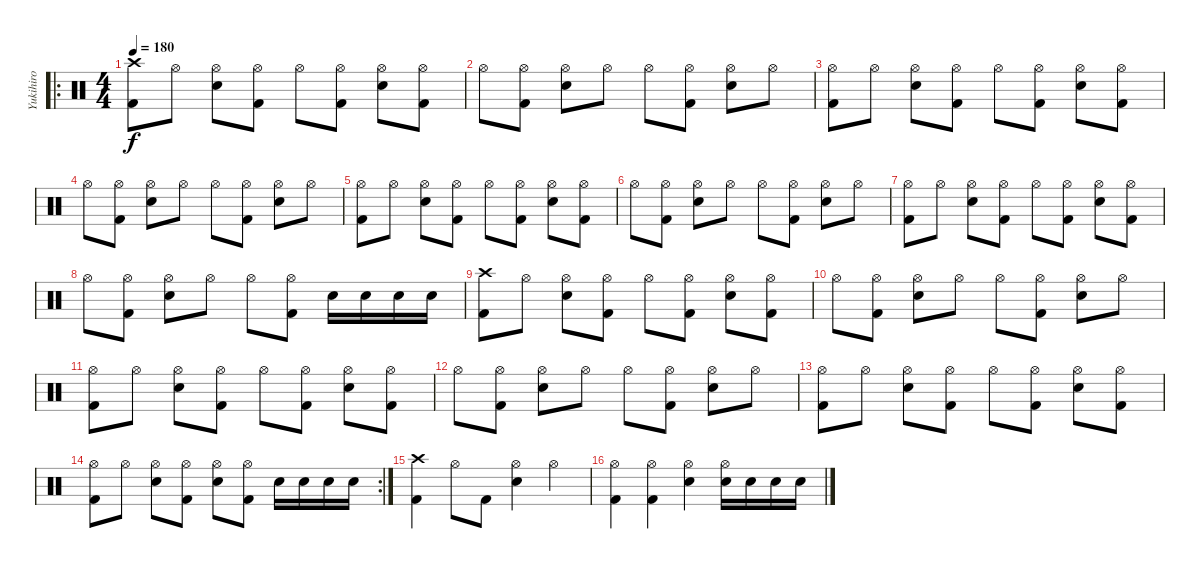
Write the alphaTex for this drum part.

\track ("Yukihiro" "Yukihiro") {instrument percussion}
\staff {score}
\articulation defaults
\ro
\ts (4 4)
\tempo 180
\clef neutral
\ks c
("Crash high (hit)" "Kick (hit) 2").8{dy f} "Hi-Hat (open)".8 ("Hi-Hat (open)" "Electric Snare (hit)").8 ("Hi-Hat (open)" "Kick (hit) 2").8 "Hi-Hat (open)".8 ("Hi-Hat (open)" "Kick (hit) 2").8 ("Hi-Hat (open)" "Electric Snare (hit)").8 ("Hi-Hat (open)" "Kick (hit) 2").8 |
"Hi-Hat (open)".8 ("Hi-Hat (open)" "Kick (hit) 2").8 ("Hi-Hat (open)" "Electric Snare (hit)").8 "Hi-Hat (open)".8 "Hi-Hat (open)".8 ("Hi-Hat (open)" "Kick (hit) 2").8 ("Hi-Hat (open)" "Electric Snare (hit)").8 "Hi-Hat (open)".8 |
("Hi-Hat (open)" "Kick (hit) 2").8 "Hi-Hat (open)".8 ("Hi-Hat (open)" "Electric Snare (hit)").8 ("Hi-Hat (open)" "Kick (hit) 2").8 "Hi-Hat (open)".8 ("Hi-Hat (open)" "Kick (hit) 2").8 ("Hi-Hat (open)" "Electric Snare (hit)").8 ("Hi-Hat (open)" "Kick (hit) 2").8 |
"Hi-Hat (open)".8 ("Hi-Hat (open)" "Kick (hit) 2").8 ("Hi-Hat (open)" "Electric Snare (hit)").8 "Hi-Hat (open)".8 "Hi-Hat (open)".8 ("Hi-Hat (open)" "Kick (hit) 2").8 ("Hi-Hat (open)" "Electric Snare (hit)").8 "Hi-Hat (open)".8 |
("Hi-Hat (open)" "Kick (hit) 2").8 "Hi-Hat (open)".8 ("Hi-Hat (open)" "Electric Snare (hit)").8 ("Hi-Hat (open)" "Kick (hit) 2").8 "Hi-Hat (open)".8 ("Hi-Hat (open)" "Kick (hit) 2").8 ("Hi-Hat (open)" "Electric Snare (hit)").8 ("Hi-Hat (open)" "Kick (hit) 2").8 |
"Hi-Hat (open)".8 ("Hi-Hat (open)" "Kick (hit) 2").8 ("Hi-Hat (open)" "Electric Snare (hit)").8 "Hi-Hat (open)".8 "Hi-Hat (open)".8 ("Hi-Hat (open)" "Kick (hit) 2").8 ("Hi-Hat (open)" "Electric Snare (hit)").8 "Hi-Hat (open)".8 |
("Hi-Hat (open)" "Kick (hit) 2").8 "Hi-Hat (open)".8 ("Hi-Hat (open)" "Electric Snare (hit)").8 ("Hi-Hat (open)" "Kick (hit) 2").8 "Hi-Hat (open)".8 ("Hi-Hat (open)" "Kick (hit) 2").8 ("Hi-Hat (open)" "Electric Snare (hit)").8 ("Hi-Hat (open)" "Kick (hit) 2").8 |
"Hi-Hat (open)".8 ("Hi-Hat (open)" "Kick (hit) 2").8 ("Hi-Hat (open)" "Electric Snare (hit)").8 "Hi-Hat (open)".8 "Hi-Hat (open)".8 ("Hi-Hat (open)" "Kick (hit) 2").8 "Electric Snare (hit)".16 "Electric Snare (hit)".16 "Electric Snare (hit)".16 "Electric Snare (hit)".16 |
("Crash high (hit)" "Kick (hit) 2").8 "Hi-Hat (open)".8 ("Hi-Hat (open)" "Electric Snare (hit)").8 ("Hi-Hat (open)" "Kick (hit) 2").8 "Hi-Hat (open)".8 ("Hi-Hat (open)" "Kick (hit) 2").8 ("Hi-Hat (open)" "Electric Snare (hit)").8 ("Hi-Hat (open)" "Kick (hit) 2").8 |
"Hi-Hat (open)".8 ("Hi-Hat (open)" "Kick (hit) 2").8 ("Hi-Hat (open)" "Electric Snare (hit)").8 "Hi-Hat (open)".8 "Hi-Hat (open)".8 ("Hi-Hat (open)" "Kick (hit) 2").8 ("Hi-Hat (open)" "Electric Snare (hit)").8 "Hi-Hat (open)".8 |
("Hi-Hat (open)" "Kick (hit) 2").8 "Hi-Hat (open)".8 ("Hi-Hat (open)" "Electric Snare (hit)").8 ("Hi-Hat (open)" "Kick (hit) 2").8 "Hi-Hat (open)".8 ("Hi-Hat (open)" "Kick (hit) 2").8 ("Hi-Hat (open)" "Electric Snare (hit)").8 ("Hi-Hat (open)" "Kick (hit) 2").8 |
"Hi-Hat (open)".8 ("Hi-Hat (open)" "Kick (hit) 2").8 ("Hi-Hat (open)" "Electric Snare (hit)").8 "Hi-Hat (open)".8 "Hi-Hat (open)".8 ("Hi-Hat (open)" "Kick (hit) 2").8 ("Hi-Hat (open)" "Electric Snare (hit)").8 "Hi-Hat (open)".8 |
("Hi-Hat (open)" "Kick (hit) 2").8 "Hi-Hat (open)".8 ("Hi-Hat (open)" "Electric Snare (hit)").8 ("Hi-Hat (open)" "Kick (hit) 2").8 "Hi-Hat (open)".8 ("Hi-Hat (open)" "Kick (hit) 2").8 ("Hi-Hat (open)" "Electric Snare (hit)").8 ("Hi-Hat (open)" "Kick (hit) 2").8 |
\rc 2
("Hi-Hat (open)" "Kick (hit) 2").8 "Hi-Hat (open)".8 ("Hi-Hat (open)" "Electric Snare (hit)").8 ("Hi-Hat (open)" "Kick (hit) 2").8 ("Hi-Hat (open)" "Electric Snare (hit)").8 ("Hi-Hat (open)" "Kick (hit) 2").8 "Electric Snare (hit)".16 "Electric Snare (hit)".16 "Electric Snare (hit)".16 "Electric Snare (hit)".16 |
("Crash high (hit)" "Kick (hit) 2").4 "Hi-Hat (open)".8 "Kick (hit) 2".8 ("Hi-Hat (open)" "Electric Snare (hit)").4 "Hi-Hat (open)".4 |
("Hi-Hat (open)" "Kick (hit) 2").4 ("Hi-Hat (open)" "Kick (hit) 2").4 ("Hi-Hat (open)" "Electric Snare (hit)").4 ("Hi-Hat (open)" "Electric Snare (hit)").16 "Electric Snare (hit)".16 "Electric Snare (hit)".16 "Electric Snare (hit)".16
